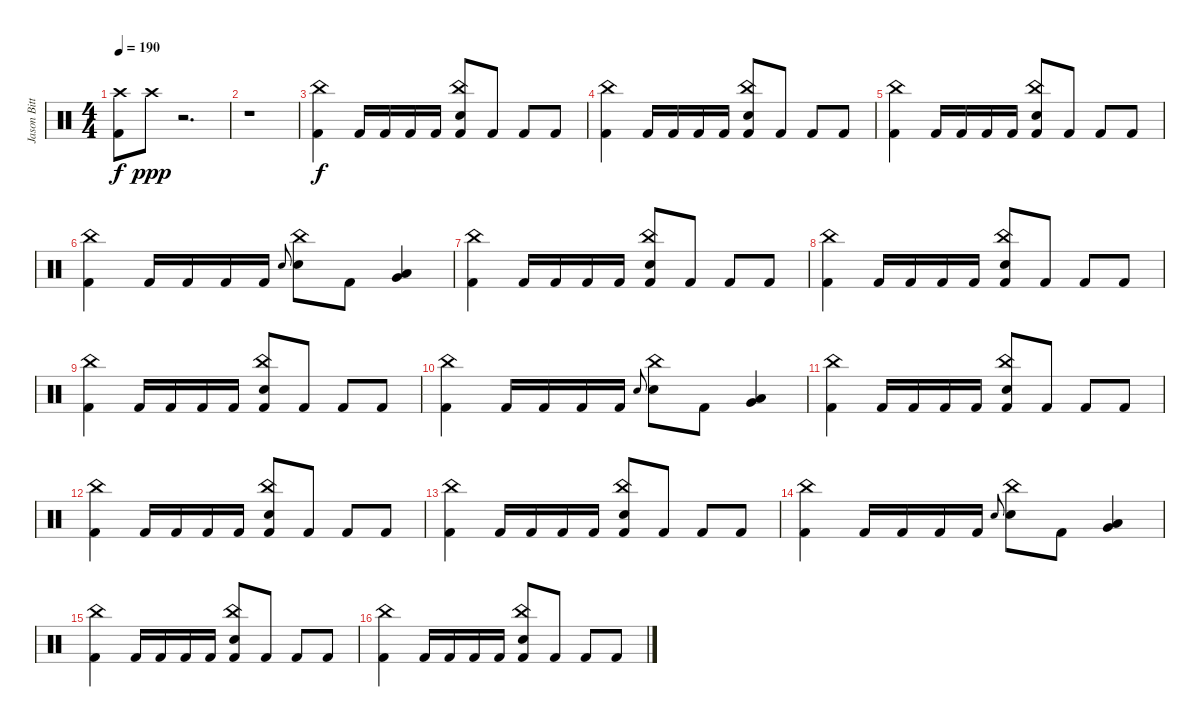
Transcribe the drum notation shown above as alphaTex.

\track ("Jason Bittner" "Jason Bitt") {instrument percussion}
\staff {score}
\articulation defaults
\ts (4 4)
\tempo 190
\clef neutral
\ks c
("Crash high (hit)" "Kick (hit) 2").8{dy f} "Crash high (hit)".8{dy ppp} r.2{d} |
r.1 |
("China (hit)" "Kick (hit) 2").4{dy f} "Kick (hit) 2".16 "Kick (hit) 2".16 "Kick (hit) 2".16 "Kick (hit) 2".16 ("China (hit)" "Electric Snare (hit)" "Kick (hit) 2").8 "Kick (hit) 2".8 "Kick (hit) 2".8 "Kick (hit) 2".8 |
("China (hit)" "Kick (hit) 2").4 "Kick (hit) 2".16 "Kick (hit) 2".16 "Kick (hit) 2".16 "Kick (hit) 2".16 ("China (hit)" "Electric Snare (hit)" "Kick (hit) 2").8 "Kick (hit) 2".8 "Kick (hit) 2".8 "Kick (hit) 2".8 |
("China (hit)" "Kick (hit) 2").4 "Kick (hit) 2".16 "Kick (hit) 2".16 "Kick (hit) 2".16 "Kick (hit) 2".16 ("China (hit)" "Electric Snare (hit)" "Kick (hit) 2").8 "Kick (hit) 2".8 "Kick (hit) 2".8 "Kick (hit) 2".8 |
("China (hit)" "Kick (hit) 2").4 "Kick (hit) 2".16 "Kick (hit) 2".16 "Kick (hit) 2".16 "Kick (hit) 2".16 "Electric Snare (hit)".8{gr onbeat} ("China (hit)" "Electric Snare (hit)").8 "Kick (hit) 2".8 ("Very Low Tom (hit)" "Low Floor Tom (hit)").4 |
("China (hit)" "Kick (hit) 2").4 "Kick (hit) 2".16 "Kick (hit) 2".16 "Kick (hit) 2".16 "Kick (hit) 2".16 ("China (hit)" "Electric Snare (hit)" "Kick (hit) 2").8 "Kick (hit) 2".8 "Kick (hit) 2".8 "Kick (hit) 2".8 |
("China (hit)" "Kick (hit) 2").4 "Kick (hit) 2".16 "Kick (hit) 2".16 "Kick (hit) 2".16 "Kick (hit) 2".16 ("China (hit)" "Electric Snare (hit)" "Kick (hit) 2").8 "Kick (hit) 2".8 "Kick (hit) 2".8 "Kick (hit) 2".8 |
("China (hit)" "Kick (hit) 2").4 "Kick (hit) 2".16 "Kick (hit) 2".16 "Kick (hit) 2".16 "Kick (hit) 2".16 ("China (hit)" "Electric Snare (hit)" "Kick (hit) 2").8 "Kick (hit) 2".8 "Kick (hit) 2".8 "Kick (hit) 2".8 |
("China (hit)" "Kick (hit) 2").4 "Kick (hit) 2".16 "Kick (hit) 2".16 "Kick (hit) 2".16 "Kick (hit) 2".16 "Electric Snare (hit)".8{gr onbeat} ("China (hit)" "Electric Snare (hit)").8 "Kick (hit) 2".8 ("Very Low Tom (hit)" "Low Floor Tom (hit)").4 |
("China (hit)" "Kick (hit) 2").4 "Kick (hit) 2".16 "Kick (hit) 2".16 "Kick (hit) 2".16 "Kick (hit) 2".16 ("China (hit)" "Electric Snare (hit)" "Kick (hit) 2").8 "Kick (hit) 2".8 "Kick (hit) 2".8 "Kick (hit) 2".8 |
("China (hit)" "Kick (hit) 2").4 "Kick (hit) 2".16 "Kick (hit) 2".16 "Kick (hit) 2".16 "Kick (hit) 2".16 ("China (hit)" "Electric Snare (hit)" "Kick (hit) 2").8 "Kick (hit) 2".8 "Kick (hit) 2".8 "Kick (hit) 2".8 |
("China (hit)" "Kick (hit) 2").4 "Kick (hit) 2".16 "Kick (hit) 2".16 "Kick (hit) 2".16 "Kick (hit) 2".16 ("China (hit)" "Electric Snare (hit)" "Kick (hit) 2").8 "Kick (hit) 2".8 "Kick (hit) 2".8 "Kick (hit) 2".8 |
("China (hit)" "Kick (hit) 2").4 "Kick (hit) 2".16 "Kick (hit) 2".16 "Kick (hit) 2".16 "Kick (hit) 2".16 "Electric Snare (hit)".8{gr onbeat} ("China (hit)" "Electric Snare (hit)").8 "Kick (hit) 2".8 ("Very Low Tom (hit)" "Low Floor Tom (hit)").4 |
("China (hit)" "Kick (hit) 2").4 "Kick (hit) 2".16 "Kick (hit) 2".16 "Kick (hit) 2".16 "Kick (hit) 2".16 ("China (hit)" "Electric Snare (hit)" "Kick (hit) 2").8 "Kick (hit) 2".8 "Kick (hit) 2".8 "Kick (hit) 2".8 |
("China (hit)" "Kick (hit) 2").4 "Kick (hit) 2".16 "Kick (hit) 2".16 "Kick (hit) 2".16 "Kick (hit) 2".16 ("China (hit)" "Electric Snare (hit)" "Kick (hit) 2").8 "Kick (hit) 2".8 "Kick (hit) 2".8 "Kick (hit) 2".8
